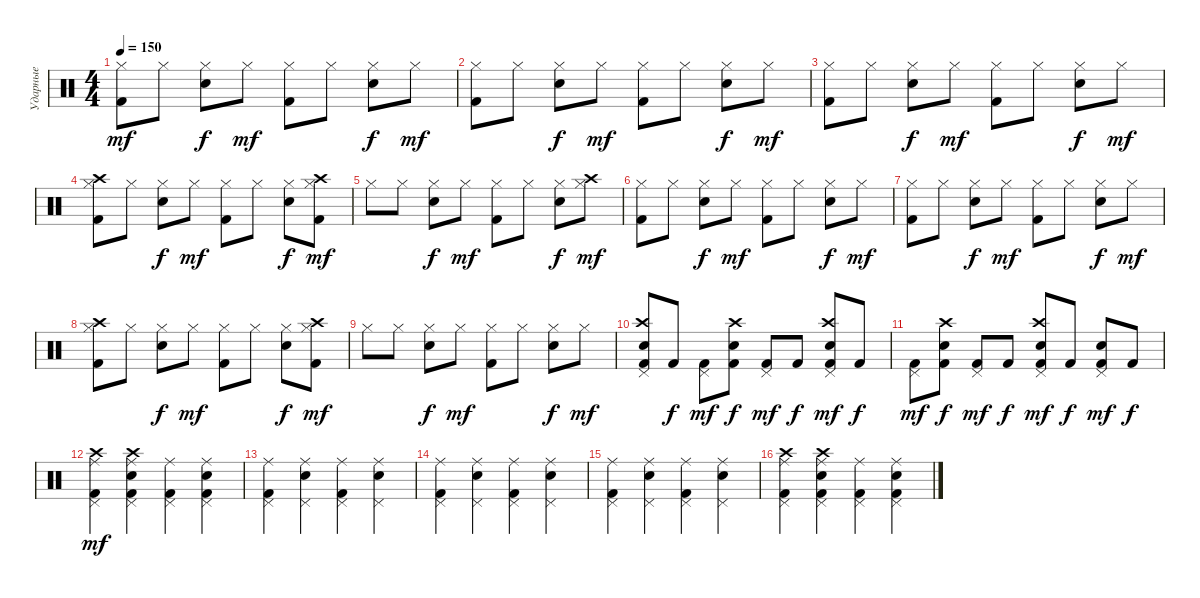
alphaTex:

\track ("Ударные" "Ударные") {instrument percussion}
\staff {score}
\articulation defaults
\ts (4 4)
\tempo 150
\clef neutral
\ks c
("Kick (hit) 2" "Hi-Hat (closed)").8{dy mf} "Hi-Hat (closed)".8 ("Snare (hit) 2" "Hi-Hat (closed)").8{dy f} "Hi-Hat (closed)".8{dy mf} ("Kick (hit) 2" "Hi-Hat (closed)").8 "Hi-Hat (closed)".8 ("Snare (hit) 2" "Hi-Hat (closed)").8{dy f} "Hi-Hat (closed)".8{dy mf} |
("Kick (hit) 2" "Hi-Hat (closed)").8 "Hi-Hat (closed)".8 ("Snare (hit) 2" "Hi-Hat (closed)").8{dy f} "Hi-Hat (closed)".8{dy mf} ("Kick (hit) 2" "Hi-Hat (closed)").8 "Hi-Hat (closed)".8 ("Snare (hit) 2" "Hi-Hat (closed)").8{dy f} "Hi-Hat (closed)".8{dy mf} |
("Kick (hit) 2" "Hi-Hat (closed)").8 "Hi-Hat (closed)".8 ("Snare (hit) 2" "Hi-Hat (closed)").8{dy f} "Hi-Hat (closed)".8{dy mf} ("Kick (hit) 2" "Hi-Hat (closed)").8 "Hi-Hat (closed)".8 ("Snare (hit) 2" "Hi-Hat (closed)").8{dy f} "Hi-Hat (closed)".8{dy mf} |
("Kick (hit) 2" "Crash high (hit)" "Hi-Hat (closed)").8 "Hi-Hat (closed)".8 ("Snare (hit) 2" "Hi-Hat (closed)").8{dy f} "Hi-Hat (closed)".8{dy mf} ("Kick (hit) 2" "Hi-Hat (closed)").8 "Hi-Hat (closed)".8 ("Snare (hit) 2" "Hi-Hat (closed)").8{dy f} ("Kick (hit) 2" "Crash high (hit)" "Hi-Hat (closed)").8{dy mf} |
"Hi-Hat (closed)".8 "Hi-Hat (closed)".8 ("Snare (hit) 2" "Hi-Hat (closed)").8{dy f} "Hi-Hat (closed)".8{dy mf} ("Kick (hit) 2" "Hi-Hat (closed)").8 "Hi-Hat (closed)".8 ("Snare (hit) 2" "Hi-Hat (closed)").8{dy f} ("Crash high (hit)" "Hi-Hat (closed)").8{dy mf} |
("Kick (hit) 2" "Hi-Hat (closed)").8 "Hi-Hat (closed)".8 ("Snare (hit) 2" "Hi-Hat (closed)").8{dy f} "Hi-Hat (closed)".8{dy mf} ("Kick (hit) 2" "Hi-Hat (closed)").8 "Hi-Hat (closed)".8 ("Snare (hit) 2" "Hi-Hat (closed)").8{dy f} "Hi-Hat (closed)".8{dy mf} |
("Kick (hit) 2" "Hi-Hat (closed)").8 "Hi-Hat (closed)".8 ("Snare (hit) 2" "Hi-Hat (closed)").8{dy f} "Hi-Hat (closed)".8{dy mf} ("Kick (hit) 2" "Hi-Hat (closed)").8 "Hi-Hat (closed)".8 ("Snare (hit) 2" "Hi-Hat (closed)").8{dy f} "Hi-Hat (closed)".8{dy mf} |
("Kick (hit) 2" "Crash high (hit)" "Hi-Hat (closed)").8 "Hi-Hat (closed)".8 ("Snare (hit) 2" "Hi-Hat (closed)").8{dy f} "Hi-Hat (closed)".8{dy mf} ("Kick (hit) 2" "Hi-Hat (closed)").8 "Hi-Hat (closed)".8 ("Snare (hit) 2" "Hi-Hat (closed)").8{dy f} ("Kick (hit) 2" "Crash high (hit)" "Hi-Hat (closed)").8{dy mf} |
"Hi-Hat (closed)".8 "Hi-Hat (closed)".8 ("Snare (hit) 2" "Hi-Hat (closed)").8{dy f} "Hi-Hat (closed)".8{dy mf} ("Kick (hit) 2" "Hi-Hat (closed)").8 "Hi-Hat (closed)".8 ("Snare (hit) 2" "Hi-Hat (closed)").8{dy f} "Hi-Hat (closed)".8{dy mf} |
("Kick (hit) 2" "Snare (hit) 2" "Crash high (hit)" "Pedal Hi-Hat (hit)").8 "Kick (hit) 2".8{dy f} ("Kick (hit) 2" "Pedal Hi-Hat (hit)").8{dy mf} ("Kick (hit) 2" "Snare (hit) 2" "Crash high (hit)").8{dy f} ("Kick (hit) 2" "Pedal Hi-Hat (hit)").8{dy mf} "Kick (hit) 2".8{dy f} ("Kick (hit) 2" "Snare (hit) 2" "Crash high (hit)" "Pedal Hi-Hat (hit)").8{dy mf} "Kick (hit) 2".8{dy f} |
("Kick (hit) 2" "Pedal Hi-Hat (hit)").8{dy mf} ("Kick (hit) 2" "Snare (hit) 2" "Crash high (hit)").8{dy f} ("Kick (hit) 2" "Pedal Hi-Hat (hit)").8{dy mf} "Kick (hit) 2".8{dy f} ("Kick (hit) 2" "Snare (hit) 2" "Crash high (hit)" "Pedal Hi-Hat (hit)").8{dy mf} "Kick (hit) 2".8{dy f} ("Kick (hit) 2" "Snare (hit) 2" "Pedal Hi-Hat (hit)").8{dy mf} "Kick (hit) 2".8{dy f} |
("Kick (hit) 2" "Crash high (hit)" "Pedal Hi-Hat (hit)" "Ride (middle)").4{dy mf} ("Kick (hit) 2" "Snare (hit) 2" "Crash high (hit)" "Pedal Hi-Hat (hit)" "Ride (middle)").4 ("Kick (hit) 2" "Pedal Hi-Hat (hit)" "Ride (middle)").4 ("Kick (hit) 2" "Snare (hit) 2" "Pedal Hi-Hat (hit)" "Ride (middle)").4 |
("Kick (hit) 2" "Pedal Hi-Hat (hit)" "Ride (middle)").4 ("Snare (hit) 2" "Pedal Hi-Hat (hit)" "Ride (middle)").4 ("Kick (hit) 2" "Pedal Hi-Hat (hit)" "Ride (middle)").4 ("Snare (hit) 2" "Pedal Hi-Hat (hit)" "Ride (middle)").4 |
("Kick (hit) 2" "Pedal Hi-Hat (hit)" "Ride (middle)").4 ("Snare (hit) 2" "Pedal Hi-Hat (hit)" "Ride (middle)").4 ("Kick (hit) 2" "Pedal Hi-Hat (hit)" "Ride (middle)").4 ("Snare (hit) 2" "Pedal Hi-Hat (hit)" "Ride (middle)").4 |
("Kick (hit) 2" "Pedal Hi-Hat (hit)" "Ride (middle)").4 ("Snare (hit) 2" "Pedal Hi-Hat (hit)" "Ride (middle)").4 ("Kick (hit) 2" "Pedal Hi-Hat (hit)" "Ride (middle)").4 ("Snare (hit) 2" "Pedal Hi-Hat (hit)" "Ride (middle)").4 |
("Kick (hit) 2" "Crash high (hit)" "Pedal Hi-Hat (hit)" "Ride (middle)").4 ("Kick (hit) 2" "Snare (hit) 2" "Crash high (hit)" "Pedal Hi-Hat (hit)" "Ride (middle)").4 ("Kick (hit) 2" "Pedal Hi-Hat (hit)" "Ride (middle)").4 ("Kick (hit) 2" "Snare (hit) 2" "Pedal Hi-Hat (hit)" "Ride (middle)").4
